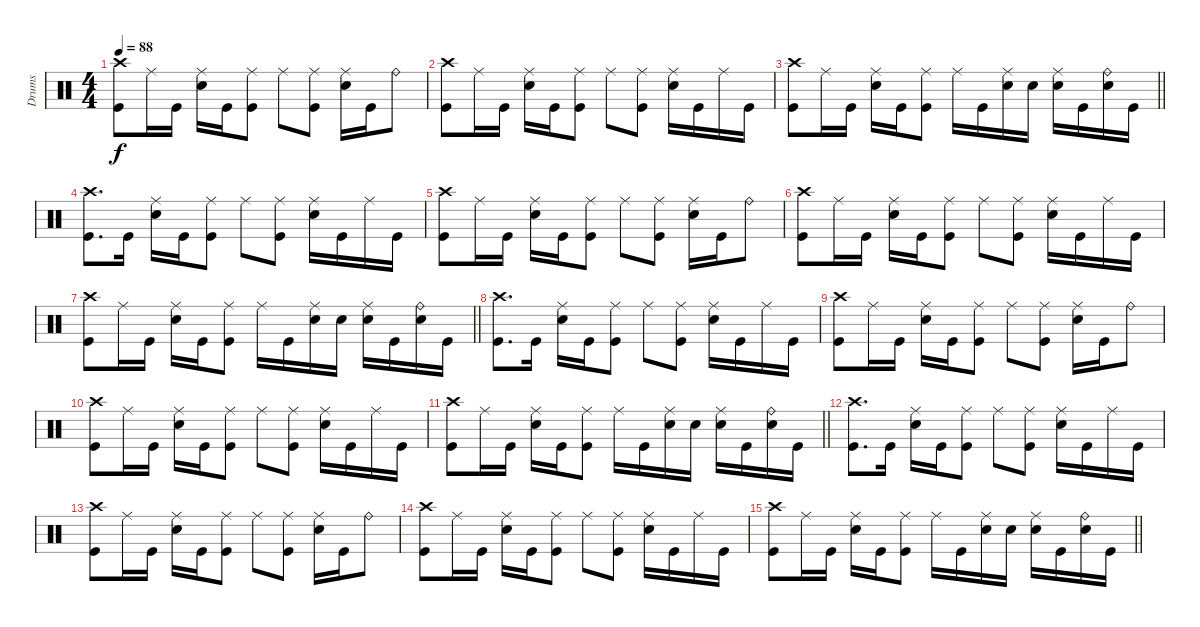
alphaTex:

\track ("Drums" "Drums") {instrument percussion}
\staff
\articulation defaults
\ts (4 4)
\tempo 88
\clef neutral
\ks c
("Crash high (hit)" "Kick (hit)").8{dy f} "Ride (middle)".16 "Kick (hit)".16 ("Ride (middle)" "Electric Snare (hit)").16 "Kick (hit)".16 ("Ride (middle)" "Kick (hit)").8 "Ride (middle)".8 ("Ride (middle)" "Kick (hit)").8 ("Ride (middle)" "Electric Snare (hit)").16 "Kick (hit)".16 "Ride (bell)".8 |
("Crash high (hit)" "Kick (hit)").8 "Ride (middle)".16 "Kick (hit)".16 ("Ride (middle)" "Electric Snare (hit)").16 "Kick (hit)".16 ("Ride (middle)" "Kick (hit)").8 "Ride (middle)".8 ("Ride (middle)" "Kick (hit)").8 ("Ride (middle)" "Electric Snare (hit)").16 "Kick (hit)".16 "Ride (middle)".16 "Kick (hit)".16 |
\barLineRight lightlight
("Crash high (hit)" "Kick (hit)").8 "Ride (middle)".16 "Kick (hit)".16 ("Ride (middle)" "Electric Snare (hit)").16 "Kick (hit)".16 ("Ride (middle)" "Kick (hit)").8 "Ride (middle)".16 "Kick (hit)".16 ("Ride (middle)" "Electric Snare (hit)").16 "Electric Snare (hit)".16 ("Ride (middle)" "Electric Snare (hit)").16 "Kick (hit)".16 ("Ride (bell)" "Electric Snare (hit)").16 "Kick (hit)".16 |
("Crash high (hit)" "Kick (hit)").8{d} "Kick (hit)".16 ("Ride (middle)" "Electric Snare (hit)").16 "Kick (hit)".16 ("Ride (middle)" "Kick (hit)").8 "Ride (middle)".8 ("Ride (middle)" "Kick (hit)").8 ("Ride (middle)" "Electric Snare (hit)").16 "Kick (hit)".16 "Ride (middle)".16 "Kick (hit)".16 |
("Crash high (hit)" "Kick (hit)").8 "Ride (middle)".16 "Kick (hit)".16 ("Ride (middle)" "Electric Snare (hit)").16 "Kick (hit)".16 ("Ride (middle)" "Kick (hit)").8 "Ride (middle)".8 ("Ride (middle)" "Kick (hit)").8 ("Ride (middle)" "Electric Snare (hit)").16 "Kick (hit)".16 "Ride (bell)".8 |
("Crash high (hit)" "Kick (hit)").8 "Ride (middle)".16 "Kick (hit)".16 ("Ride (middle)" "Electric Snare (hit)").16 "Kick (hit)".16 ("Ride (middle)" "Kick (hit)").8 "Ride (middle)".8 ("Ride (middle)" "Kick (hit)").8 ("Ride (middle)" "Electric Snare (hit)").16 "Kick (hit)".16 "Ride (middle)".16 "Kick (hit)".16 |
\barLineRight lightlight
("Crash high (hit)" "Kick (hit)").8 "Ride (middle)".16 "Kick (hit)".16 ("Ride (middle)" "Electric Snare (hit)").16 "Kick (hit)".16 ("Ride (middle)" "Kick (hit)").8 "Ride (middle)".16 "Kick (hit)".16 ("Ride (middle)" "Electric Snare (hit)").16 "Electric Snare (hit)".16 ("Ride (middle)" "Electric Snare (hit)").16 "Kick (hit)".16 ("Ride (bell)" "Electric Snare (hit)").16 "Kick (hit)".16 |
("Crash high (hit)" "Kick (hit)").8{d} "Kick (hit)".16 ("Ride (middle)" "Electric Snare (hit)").16 "Kick (hit)".16 ("Ride (middle)" "Kick (hit)").8 "Ride (middle)".8 ("Ride (middle)" "Kick (hit)").8 ("Ride (middle)" "Electric Snare (hit)").16 "Kick (hit)".16 "Ride (middle)".16 "Kick (hit)".16 |
("Crash high (hit)" "Kick (hit)").8 "Ride (middle)".16 "Kick (hit)".16 ("Ride (middle)" "Electric Snare (hit)").16 "Kick (hit)".16 ("Ride (middle)" "Kick (hit)").8 "Ride (middle)".8 ("Ride (middle)" "Kick (hit)").8 ("Ride (middle)" "Electric Snare (hit)").16 "Kick (hit)".16 "Ride (bell)".8 |
("Crash high (hit)" "Kick (hit)").8 "Ride (middle)".16 "Kick (hit)".16 ("Ride (middle)" "Electric Snare (hit)").16 "Kick (hit)".16 ("Ride (middle)" "Kick (hit)").8 "Ride (middle)".8 ("Ride (middle)" "Kick (hit)").8 ("Ride (middle)" "Electric Snare (hit)").16 "Kick (hit)".16 "Ride (middle)".16 "Kick (hit)".16 |
\barLineRight lightlight
("Crash high (hit)" "Kick (hit)").8 "Ride (middle)".16 "Kick (hit)".16 ("Ride (middle)" "Electric Snare (hit)").16 "Kick (hit)".16 ("Ride (middle)" "Kick (hit)").8 "Ride (middle)".16 "Kick (hit)".16 ("Ride (middle)" "Electric Snare (hit)").16 "Electric Snare (hit)".16 ("Ride (middle)" "Electric Snare (hit)").16 "Kick (hit)".16 ("Ride (bell)" "Electric Snare (hit)").16 "Kick (hit)".16 |
("Crash high (hit)" "Kick (hit)").8{d} "Kick (hit)".16 ("Ride (middle)" "Electric Snare (hit)").16 "Kick (hit)".16 ("Ride (middle)" "Kick (hit)").8 "Ride (middle)".8 ("Ride (middle)" "Kick (hit)").8 ("Ride (middle)" "Electric Snare (hit)").16 "Kick (hit)".16 "Ride (middle)".16 "Kick (hit)".16 |
("Crash high (hit)" "Kick (hit)").8 "Ride (middle)".16 "Kick (hit)".16 ("Ride (middle)" "Electric Snare (hit)").16 "Kick (hit)".16 ("Ride (middle)" "Kick (hit)").8 "Ride (middle)".8 ("Ride (middle)" "Kick (hit)").8 ("Ride (middle)" "Electric Snare (hit)").16 "Kick (hit)".16 "Ride (bell)".8 |
("Crash high (hit)" "Kick (hit)").8 "Ride (middle)".16 "Kick (hit)".16 ("Ride (middle)" "Electric Snare (hit)").16 "Kick (hit)".16 ("Ride (middle)" "Kick (hit)").8 "Ride (middle)".8 ("Ride (middle)" "Kick (hit)").8 ("Ride (middle)" "Electric Snare (hit)").16 "Kick (hit)".16 "Ride (middle)".16 "Kick (hit)".16 |
\barLineRight lightlight
("Crash high (hit)" "Kick (hit)").8 "Ride (middle)".16 "Kick (hit)".16 ("Ride (middle)" "Electric Snare (hit)").16 "Kick (hit)".16 ("Ride (middle)" "Kick (hit)").8 "Ride (middle)".16 "Kick (hit)".16 ("Ride (middle)" "Electric Snare (hit)").16 "Electric Snare (hit)".16 ("Ride (middle)" "Electric Snare (hit)").16 "Kick (hit)".16 ("Ride (bell)" "Electric Snare (hit)").16 "Kick (hit)".16
